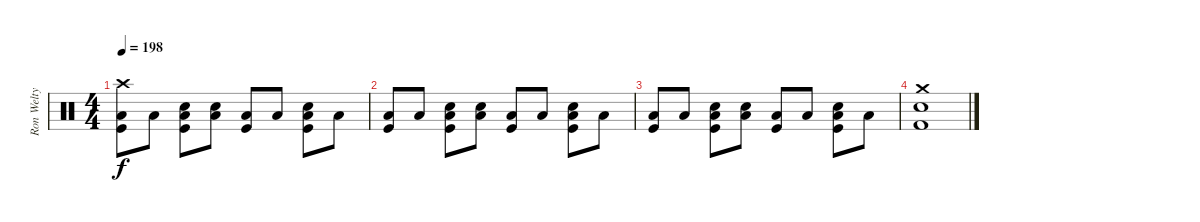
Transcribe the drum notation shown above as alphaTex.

\track ("Ron Welty" "Ron Welty") {instrument percussion}
\staff {score}
\articulation defaults
\ts (4 4)
\tempo 198
\clef neutral
\ks c
("Low Tom (hit)" "Kick (hit)" "Crash high (hit)").8{dy f} "Low Tom (hit)".8 ("Low Tom (hit)" "Kick (hit)" "Snare (hit) 2").8 ("Low Tom (hit)" "Snare (hit) 2").8 ("Low Tom (hit)" "Kick (hit)").8 "Low Tom (hit)".8 ("Low Tom (hit)" "Kick (hit)" "Snare (hit) 2").8 "Low Tom (hit)".8 |
("Low Tom (hit)" "Kick (hit)").8 "Low Tom (hit)".8 ("Low Tom (hit)" "Kick (hit)" "Snare (hit) 2").8 ("Low Tom (hit)" "Snare (hit) 2").8 ("Low Tom (hit)" "Kick (hit)").8 "Low Tom (hit)".8 ("Low Tom (hit)" "Kick (hit)" "Snare (hit) 2").8 "Low Tom (hit)".8 |
("Low Tom (hit)" "Kick (hit)").8 "Low Tom (hit)".8 ("Low Tom (hit)" "Kick (hit)" "Snare (hit) 2").8 ("Low Tom (hit)" "Snare (hit) 2").8 ("Low Tom (hit)" "Kick (hit)").8 "Low Tom (hit)".8 ("Low Tom (hit)" "Kick (hit)" "Snare (hit) 2").8 "Low Tom (hit)".8 |
("Crash medium (hit)" "Kick (hit) 2" "Snare (hit) 2").1
